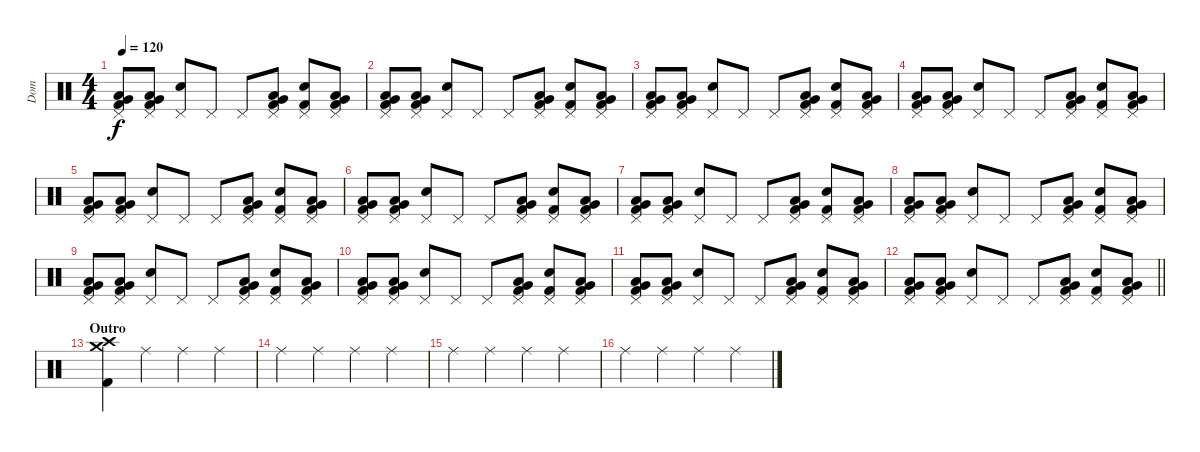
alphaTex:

\track ("Dom" "Dom") {instrument percussion}
\staff {score}
\articulation defaults
\ts (4 4)
\tempo 120
\clef neutral
\ks c
("Pedal Hi-Hat (hit)" "Very Low Tom (hit)" "Low Floor Tom (hit)" "Kick (hit) 2").8{dy f} ("Pedal Hi-Hat (hit)" "Very Low Tom (hit)" "Low Floor Tom (hit)" "Kick (hit) 2").8 ("Pedal Hi-Hat (hit)" "Electric Snare (hit)").8 "Pedal Hi-Hat (hit)".8 "Pedal Hi-Hat (hit)".8 ("Pedal Hi-Hat (hit)" "Very Low Tom (hit)" "Low Floor Tom (hit)" "Kick (hit) 2").8 ("Pedal Hi-Hat (hit)" "Electric Snare (hit)" "Kick (hit) 2").8 ("Pedal Hi-Hat (hit)" "Very Low Tom (hit)" "Low Floor Tom (hit)" "Kick (hit) 2").8 |
("Pedal Hi-Hat (hit)" "Very Low Tom (hit)" "Low Floor Tom (hit)" "Kick (hit) 2").8 ("Pedal Hi-Hat (hit)" "Very Low Tom (hit)" "Low Floor Tom (hit)" "Kick (hit) 2").8 ("Pedal Hi-Hat (hit)" "Electric Snare (hit)").8 "Pedal Hi-Hat (hit)".8 "Pedal Hi-Hat (hit)".8 ("Pedal Hi-Hat (hit)" "Very Low Tom (hit)" "Low Floor Tom (hit)" "Kick (hit) 2").8 ("Pedal Hi-Hat (hit)" "Electric Snare (hit)" "Kick (hit) 2").8 ("Pedal Hi-Hat (hit)" "Very Low Tom (hit)" "Low Floor Tom (hit)" "Kick (hit) 2").8 |
("Pedal Hi-Hat (hit)" "Very Low Tom (hit)" "Low Floor Tom (hit)" "Kick (hit) 2").8 ("Pedal Hi-Hat (hit)" "Very Low Tom (hit)" "Low Floor Tom (hit)" "Kick (hit) 2").8 ("Pedal Hi-Hat (hit)" "Electric Snare (hit)").8 "Pedal Hi-Hat (hit)".8 "Pedal Hi-Hat (hit)".8 ("Pedal Hi-Hat (hit)" "Very Low Tom (hit)" "Low Floor Tom (hit)" "Kick (hit) 2").8 ("Pedal Hi-Hat (hit)" "Electric Snare (hit)" "Kick (hit) 2").8 ("Pedal Hi-Hat (hit)" "Very Low Tom (hit)" "Low Floor Tom (hit)" "Kick (hit) 2").8 |
("Pedal Hi-Hat (hit)" "Very Low Tom (hit)" "Low Floor Tom (hit)" "Kick (hit) 2").8 ("Pedal Hi-Hat (hit)" "Very Low Tom (hit)" "Low Floor Tom (hit)" "Kick (hit) 2").8 ("Pedal Hi-Hat (hit)" "Electric Snare (hit)").8 "Pedal Hi-Hat (hit)".8 "Pedal Hi-Hat (hit)".8 ("Pedal Hi-Hat (hit)" "Very Low Tom (hit)" "Low Floor Tom (hit)" "Kick (hit) 2").8 ("Pedal Hi-Hat (hit)" "Electric Snare (hit)" "Kick (hit) 2").8 ("Pedal Hi-Hat (hit)" "Very Low Tom (hit)" "Low Floor Tom (hit)" "Kick (hit) 2").8 |
("Pedal Hi-Hat (hit)" "Very Low Tom (hit)" "Low Floor Tom (hit)" "Kick (hit) 2").8 ("Pedal Hi-Hat (hit)" "Very Low Tom (hit)" "Low Floor Tom (hit)" "Kick (hit) 2").8 ("Pedal Hi-Hat (hit)" "Electric Snare (hit)").8 "Pedal Hi-Hat (hit)".8 "Pedal Hi-Hat (hit)".8 ("Pedal Hi-Hat (hit)" "Very Low Tom (hit)" "Low Floor Tom (hit)" "Kick (hit) 2").8 ("Pedal Hi-Hat (hit)" "Electric Snare (hit)" "Kick (hit) 2").8 ("Pedal Hi-Hat (hit)" "Very Low Tom (hit)" "Low Floor Tom (hit)" "Kick (hit) 2").8 |
("Pedal Hi-Hat (hit)" "Very Low Tom (hit)" "Low Floor Tom (hit)" "Kick (hit) 2").8 ("Pedal Hi-Hat (hit)" "Very Low Tom (hit)" "Low Floor Tom (hit)" "Kick (hit) 2").8 ("Pedal Hi-Hat (hit)" "Electric Snare (hit)").8 "Pedal Hi-Hat (hit)".8 "Pedal Hi-Hat (hit)".8 ("Pedal Hi-Hat (hit)" "Very Low Tom (hit)" "Low Floor Tom (hit)" "Kick (hit) 2").8 ("Pedal Hi-Hat (hit)" "Electric Snare (hit)" "Kick (hit) 2").8 ("Pedal Hi-Hat (hit)" "Very Low Tom (hit)" "Low Floor Tom (hit)" "Kick (hit) 2").8 |
("Pedal Hi-Hat (hit)" "Very Low Tom (hit)" "Low Floor Tom (hit)" "Kick (hit) 2").8 ("Pedal Hi-Hat (hit)" "Very Low Tom (hit)" "Low Floor Tom (hit)" "Kick (hit) 2").8 ("Pedal Hi-Hat (hit)" "Electric Snare (hit)").8 "Pedal Hi-Hat (hit)".8 "Pedal Hi-Hat (hit)".8 ("Pedal Hi-Hat (hit)" "Very Low Tom (hit)" "Low Floor Tom (hit)" "Kick (hit) 2").8 ("Pedal Hi-Hat (hit)" "Electric Snare (hit)" "Kick (hit) 2").8 ("Pedal Hi-Hat (hit)" "Very Low Tom (hit)" "Low Floor Tom (hit)" "Kick (hit) 2").8 |
("Pedal Hi-Hat (hit)" "Very Low Tom (hit)" "Low Floor Tom (hit)" "Kick (hit) 2").8 ("Pedal Hi-Hat (hit)" "Very Low Tom (hit)" "Low Floor Tom (hit)" "Kick (hit) 2").8 ("Pedal Hi-Hat (hit)" "Electric Snare (hit)").8 "Pedal Hi-Hat (hit)".8 "Pedal Hi-Hat (hit)".8 ("Pedal Hi-Hat (hit)" "Very Low Tom (hit)" "Low Floor Tom (hit)" "Kick (hit) 2").8 ("Pedal Hi-Hat (hit)" "Electric Snare (hit)" "Kick (hit) 2").8 ("Pedal Hi-Hat (hit)" "Very Low Tom (hit)" "Low Floor Tom (hit)" "Kick (hit) 2").8 |
("Pedal Hi-Hat (hit)" "Very Low Tom (hit)" "Low Floor Tom (hit)" "Kick (hit) 2").8 ("Pedal Hi-Hat (hit)" "Very Low Tom (hit)" "Low Floor Tom (hit)" "Kick (hit) 2").8 ("Pedal Hi-Hat (hit)" "Electric Snare (hit)").8 "Pedal Hi-Hat (hit)".8 "Pedal Hi-Hat (hit)".8 ("Pedal Hi-Hat (hit)" "Very Low Tom (hit)" "Low Floor Tom (hit)" "Kick (hit) 2").8 ("Pedal Hi-Hat (hit)" "Electric Snare (hit)" "Kick (hit) 2").8 ("Pedal Hi-Hat (hit)" "Very Low Tom (hit)" "Low Floor Tom (hit)" "Kick (hit) 2").8 |
("Pedal Hi-Hat (hit)" "Very Low Tom (hit)" "Low Floor Tom (hit)" "Kick (hit) 2").8 ("Pedal Hi-Hat (hit)" "Very Low Tom (hit)" "Low Floor Tom (hit)" "Kick (hit) 2").8 ("Pedal Hi-Hat (hit)" "Electric Snare (hit)").8 "Pedal Hi-Hat (hit)".8 "Pedal Hi-Hat (hit)".8 ("Pedal Hi-Hat (hit)" "Very Low Tom (hit)" "Low Floor Tom (hit)" "Kick (hit) 2").8 ("Pedal Hi-Hat (hit)" "Electric Snare (hit)" "Kick (hit) 2").8 ("Pedal Hi-Hat (hit)" "Very Low Tom (hit)" "Low Floor Tom (hit)" "Kick (hit) 2").8 |
("Pedal Hi-Hat (hit)" "Very Low Tom (hit)" "Low Floor Tom (hit)" "Kick (hit) 2").8 ("Pedal Hi-Hat (hit)" "Very Low Tom (hit)" "Low Floor Tom (hit)" "Kick (hit) 2").8 ("Pedal Hi-Hat (hit)" "Electric Snare (hit)").8 "Pedal Hi-Hat (hit)".8 "Pedal Hi-Hat (hit)".8 ("Pedal Hi-Hat (hit)" "Very Low Tom (hit)" "Low Floor Tom (hit)" "Kick (hit) 2").8 ("Pedal Hi-Hat (hit)" "Electric Snare (hit)" "Kick (hit) 2").8 ("Pedal Hi-Hat (hit)" "Very Low Tom (hit)" "Low Floor Tom (hit)" "Kick (hit) 2").8 |
\barLineRight lightlight
("Pedal Hi-Hat (hit)" "Very Low Tom (hit)" "Low Floor Tom (hit)" "Kick (hit) 2").8 ("Pedal Hi-Hat (hit)" "Very Low Tom (hit)" "Low Floor Tom (hit)" "Kick (hit) 2").8 ("Pedal Hi-Hat (hit)" "Electric Snare (hit)").8 "Pedal Hi-Hat (hit)".8 "Pedal Hi-Hat (hit)".8 ("Pedal Hi-Hat (hit)" "Very Low Tom (hit)" "Low Floor Tom (hit)" "Kick (hit) 2").8 ("Pedal Hi-Hat (hit)" "Electric Snare (hit)" "Kick (hit) 2").8 ("Pedal Hi-Hat (hit)" "Very Low Tom (hit)" "Low Floor Tom (hit)" "Kick (hit) 2").8 |
\section ("" "Outro")
("Crash high (hit)" "Crash medium (hit)" "Kick (hit) 2").4 "Ride (middle)".4 "Ride (middle)".4 "Ride (middle)".4 |
"Ride (middle)".4 "Ride (middle)".4 "Ride (middle)".4 "Ride (middle)".4 |
"Ride (middle)".4 "Ride (middle)".4 "Ride (middle)".4 "Ride (middle)".4 |
"Ride (middle)".4 "Ride (middle)".4 "Ride (middle)".4 "Ride (middle)".4
